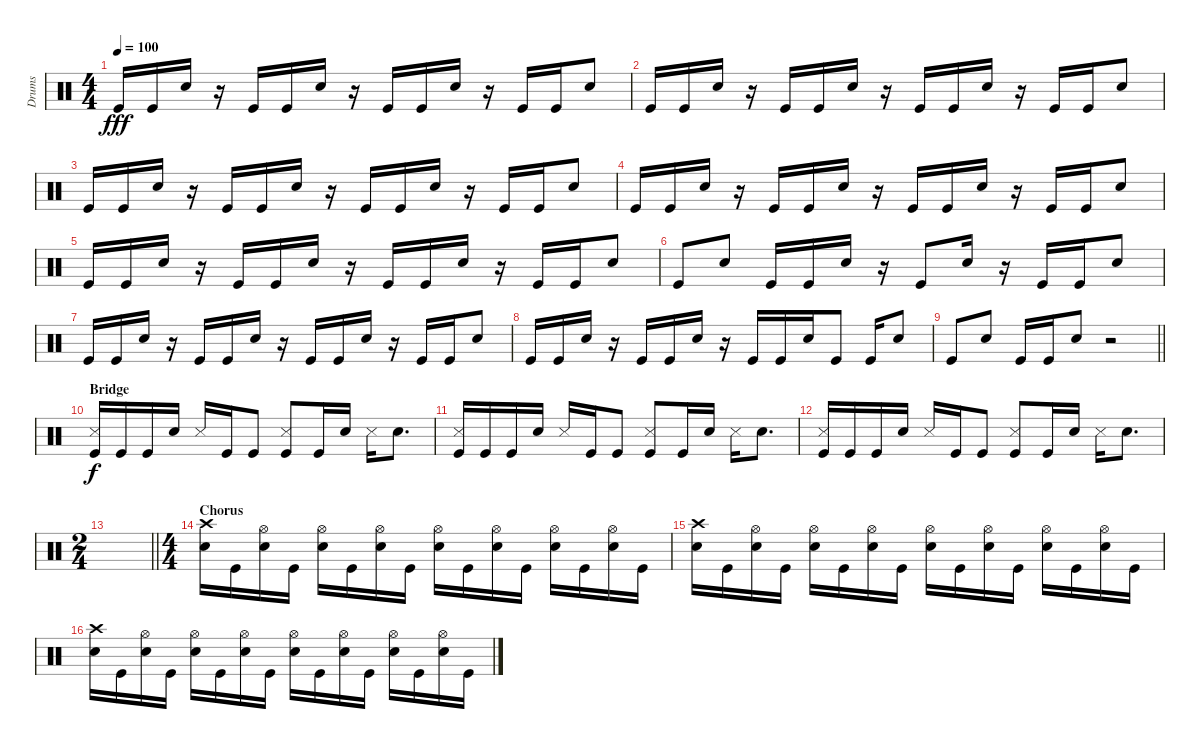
\track ("Drums" "Drums") {instrument percussion}
\staff {score}
\articulation defaults
\ts (4 4)
\tempo 100
\clef neutral
\ks c "Kick (hit)".16{dy fff} "Kick (hit)".16 "Snare (hit) 2".16
r.16 "Kick (hit)".16 "Kick (hit)".16 "Snare (hit) 2".16 r.16 "Kick (hit)".16 "Kick (hit)".16 "Snare (hit) 2".16 r.16 "Kick (hit)".16 "Kick (hit)".16 "Snare (hit) 2".8 |
"Kick (hit)".16 "Kick (hit)".16 "Snare (hit) 2".16 r.16 "Kick (hit)".16 "Kick (hit)".16 "Snare (hit) 2".16 r.16 "Kick (hit)".16 "Kick (hit)".16 "Snare (hit) 2".16 r.16 "Kick (hit)".16 "Kick (hit)".16 "Snare (hit) 2".8 |
"Kick (hit)".16 "Kick (hit)".16 "Snare (hit) 2".16 r.16 "Kick (hit)".16 "Kick (hit)".16 "Snare (hit) 2".16 r.16 "Kick (hit)".16 "Kick (hit)".16 "Snare (hit) 2".16 r.16 "Kick (hit)".16 "Kick (hit)".16 "Snare (hit) 2".8 |
"Kick (hit)".16 "Kick (hit)".16 "Snare (hit) 2".16 r.16 "Kick (hit)".16 "Kick (hit)".16 "Snare (hit) 2".16 r.16 "Kick (hit)".16 "Kick (hit)".16 "Snare (hit) 2".16 r.16 "Kick (hit)".16 "Kick (hit)".16 "Snare (hit) 2".8 |
"Kick (hit)".16 "Kick (hit)".16 "Snare (hit) 2".16 r.16 "Kick (hit)".16 "Kick (hit)".16 "Snare (hit) 2".16 r.16 "Kick (hit)".16 "Kick (hit)".16 "Snare (hit) 2".16 r.16 "Kick (hit)".16 "Kick (hit)".16 "Snare (hit) 2".8 |
"Kick (hit)".8 "Snare (hit) 2".8 "Kick (hit)".16 "Kick (hit)".16 "Snare (hit) 2".16 r.16 "Kick (hit)".8 "Snare (hit) 2".16 r.16 "Kick (hit)".16 "Kick (hit)".16 "Snare (hit) 2".8 |
"Kick (hit)".16 "Kick (hit)".16 "Snare (hit) 2".16 r.16 "Kick (hit)".16 "Kick (hit)".16 "Snare (hit) 2".16 r.16 "Kick (hit)".16 "Kick (hit)".16 "Snare (hit) 2".16 r.16 "Kick (hit)".16 "Kick (hit)".16 "Snare (hit) 2".8 |
"Kick (hit)".16 "Kick (hit)".16 "Snare (hit) 2".16 r.16 "Kick (hit)".16 "Kick (hit)".16 "Snare (hit) 2".16 r.16 "Kick (hit)".16 "Kick (hit)".16 "Snare (hit) 2".16 "Kick (hit)".8 "Kick (hit)".16 "Snare (hit) 2".8 |
\barLineRight lightlight "Kick (hit)".8 "Snare (hit) 2".8 "Kick (hit)".16 "Kick (hit)".16 "Snare (hit) 2".8
r.2 |
\section ("" "Bridge")
("Snare (side stick) 3" "Kick (hit)").16{dy f} "Kick (hit)".16 "Kick (hit)".16 "Snare (hit) 2".16 "Snare (side stick) 3".16 "Kick (hit)".16 "Kick (hit)".8 ("Snare (side stick) 3" "Kick (hit)").8 "Kick (hit)".16 "Snare (hit) 2".16 "Snare (side stick) 3".16 "Snare (hit) 2".8{d} |
("Snare (side stick) 3" "Kick (hit)").16 "Kick (hit)".16 "Kick (hit)".16 "Snare (hit) 2".16 "Snare (side stick) 3".16 "Kick (hit)".16 "Kick (hit)".8 ("Snare (side stick) 3" "Kick (hit)").8 "Kick (hit)".16 "Snare (hit) 2".16 "Snare (side stick) 3".16 "Snare (hit) 2".8{d} |
("Snare (side stick) 3" "Kick (hit)").16 "Kick (hit)".16 "Kick (hit)".16 "Snare (hit) 2".16 "Snare (side stick) 3".16 "Kick (hit)".16 "Kick (hit)".8 ("Snare (side stick) 3" "Kick (hit)").8 "Kick (hit)".16 "Snare (hit) 2".16 "Snare (side stick) 3".16 "Snare (hit) 2".8{d} |
\ts (2 4)
\barLineRight lightlight
|
\ts (4 4)
\section ("" "Chorus")
("Crash high (hit)" "Snare (hit) 2").16 "Kick (hit)".16 ("Hi-Hat (open)" "Snare (hit) 2").16 "Kick (hit)".16 ("Hi-Hat (open)" "Snare (hit) 2").16 "Kick (hit)".16 ("Hi-Hat (open)" "Snare (hit) 2").16 "Kick (hit)".16 ("Hi-Hat (open)" "Snare (hit) 2").16 "Kick (hit)".16 ("Hi-Hat (open)" "Snare (hit) 2").16 "Kick (hit)".16 ("Hi-Hat (open)" "Snare (hit) 2").16 "Kick (hit)".16 ("Hi-Hat (open)" "Snare (hit) 2").16 "Kick (hit)".16 |
("Crash high (hit)" "Snare (hit) 2").16 "Kick (hit)".16 ("Hi-Hat (open)" "Snare (hit) 2").16 "Kick (hit)".16 ("Hi-Hat (open)" "Snare (hit) 2").16 "Kick (hit)".16 ("Hi-Hat (open)" "Snare (hit) 2").16 "Kick (hit)".16 ("Hi-Hat (open)" "Snare (hit) 2").16 "Kick (hit)".16 ("Hi-Hat (open)" "Snare (hit) 2").16 "Kick (hit)".16 ("Hi-Hat (open)" "Snare (hit) 2").16 "Kick (hit)".16 ("Hi-Hat (open)" "Snare (hit) 2").16 "Kick (hit)".16 |
("Crash high (hit)" "Snare (hit) 2").16 "Kick (hit)".16 ("Hi-Hat (open)" "Snare (hit) 2").16 "Kick (hit)".16 ("Hi-Hat (open)" "Snare (hit) 2").16 "Kick (hit)".16 ("Hi-Hat (open)" "Snare (hit) 2").16 "Kick (hit)".16 ("Hi-Hat (open)" "Snare (hit) 2").16 "Kick (hit)".16 ("Hi-Hat (open)" "Snare (hit) 2").16 "Kick (hit)".16 ("Hi-Hat (open)" "Snare (hit) 2").16 "Kick (hit)".16 ("Hi-Hat (open)" "Snare (hit) 2").16 "Kick (hit)".16
